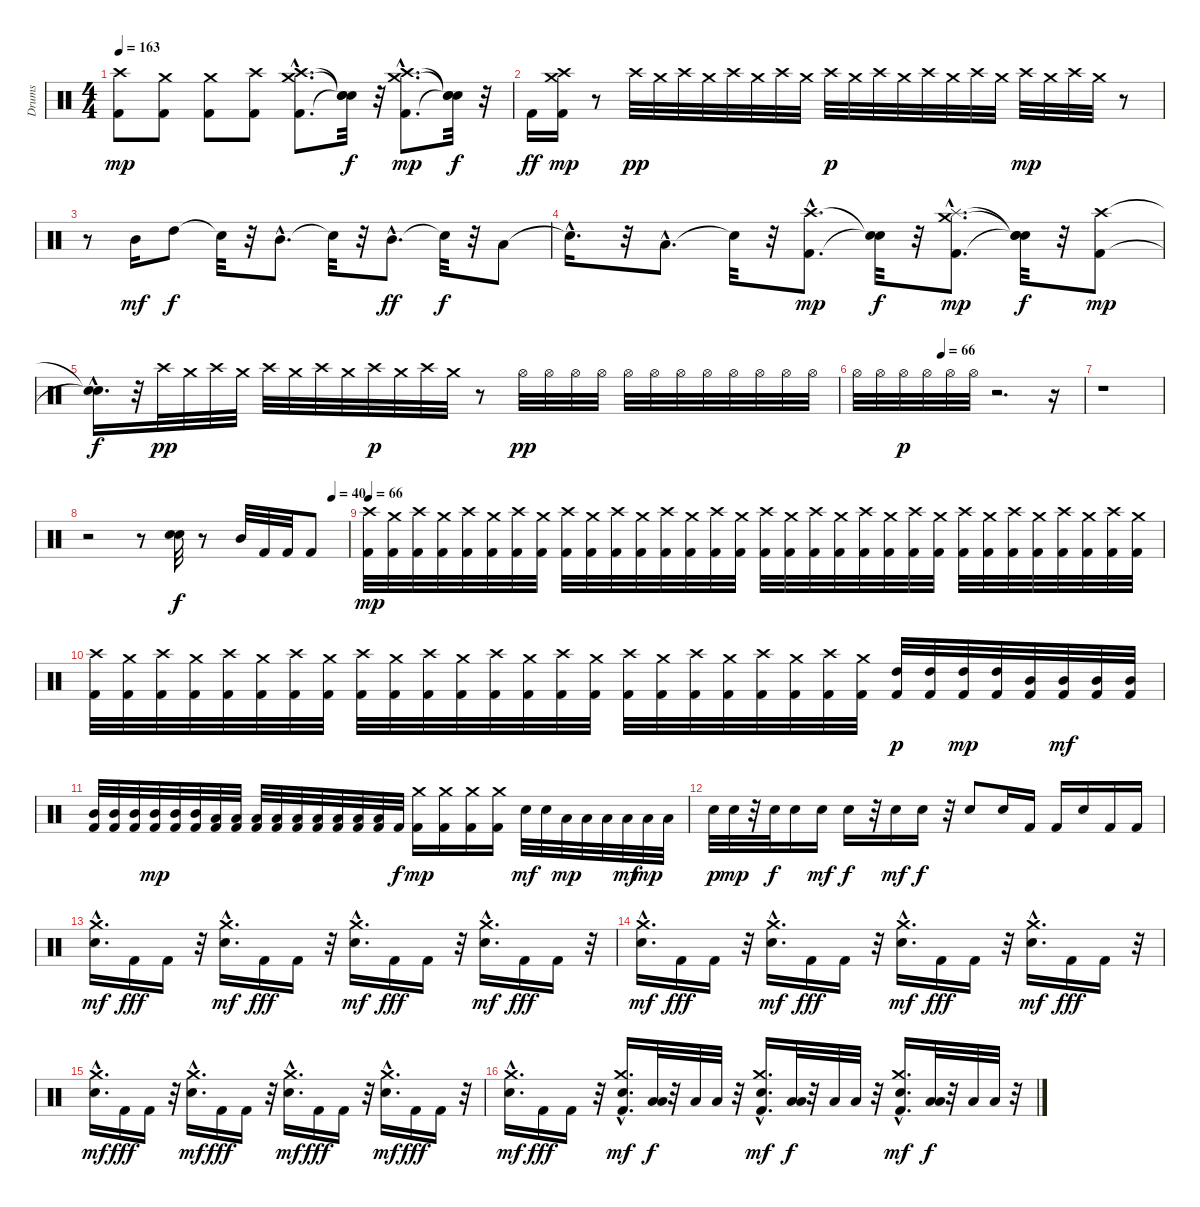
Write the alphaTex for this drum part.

\track ("Drums" "Drums") {instrument percussion}
\staff {score}
\articulation defaults
\ts (4 4)
\tempo 163
\clef neutral
\ks c
("Kick (hit) 2" "Crash high (hit)").8{dy mp} ("Kick (hit) 2" "Crash medium (hit)").8 ("Kick (hit) 2" "Crash medium (hit)").8 ("Kick (hit) 2" "Crash high (hit)").8 ("Kick (hit) 2"{hac} "Crash medium (hit)"{hac} "Crash high (hit)"{hac}).8{d} ("Snare (hit)"{t} "Snare (hit)"{t} "Snare (hit)"{t}).32{dy f} r.32 ("Kick (hit) 2"{hac} "Crash high (hit)"{hac} "Crash medium (hit)"{hac}).8{d dy mp} ("Snare (hit)"{t} "Snare (hit)"{t} "Snare (hit)"{t}).32{dy f} r.32 |
"Kick (hit) 2".16{dy ff} ("Kick (hit) 2" "Crash high (hit)" "Crash medium (hit)").16{dy mp} r.8 "Crash high (hit)".32{dy pp} "Crash medium (hit)".32 "Crash high (hit)".32 "Crash medium (hit)".32 "Crash high (hit)".32 "Crash medium (hit)".32 "Crash high (hit)".32 "Crash medium (hit)".32 "Crash high (hit)".32{dy p} "Crash medium (hit)".32 "Crash high (hit)".32 "Crash medium (hit)".32 "Crash high (hit)".32 "Crash medium (hit)".32 "Crash high (hit)".32 "Crash medium (hit)".32 "Crash high (hit)".32{dy mp} "Crash medium (hit)".32 "Crash high (hit)".32 "Crash medium (hit)".32 r.8 |
r.8 "Mid Tom (hit)".16{dy mf} "High Tom (hit)".8{dy f} "Snare (hit)"{t}.32 r.32 "Mid Tom (hit)"{hac}.8{d} "Snare (hit)"{t}.32 r.32 "Mid Tom (hit)"{hac}.8{d dy ff} "Snare (hit)"{t}.32{dy f} r.32 "Low Tom (hit)".8 |
"Snare (hit)"{hac t}.16{d} r.32 "Low Tom (hit)"{hac}.8{d} "Snare (hit)"{t}.32 r.32 ("Kick (hit) 2"{hac} "Crash high (hit)"{hac}).8{d dy mp} ("Snare (hit)"{t} "Snare (hit)"{t}).32{dy f} r.32 ("Kick (hit) 2"{hac} "Splash (hit)"{hac} "Crash medium (hit)"{hac}).8{d dy mp} ("Snare (hit)"{t} "Snare (hit)"{t} "Snare (hit)"{t}).32{dy f} r.32 ("Kick (hit) 2" "Crash high (hit)").8{dy mp} |
("Snare (hit)"{hac t} "Snare (hit)"{hac t}).16{d dy f} r.32 "Crash high (hit)".32{dy pp} "Crash medium (hit)".32 "Crash high (hit)".32 "Crash medium (hit)".32 "Crash high (hit)".32 "Crash medium (hit)".32 "Crash high (hit)".32 "Crash medium (hit)".32 "Crash high (hit)".32{dy p} "Crash medium (hit)".32 "Crash high (hit)".32 "Crash medium (hit)".32 r.8 "Hi-Hat (open)".32{dy pp} "Hi-Hat (open)".32 "Hi-Hat (open)".32 "Hi-Hat (open)".32 "Hi-Hat (open)".32 "Hi-Hat (open)".32 "Hi-Hat (open)".32 "Hi-Hat (open)".32 "Hi-Hat (open)".32 "Hi-Hat (open)".32 "Hi-Hat (open)".32 "Hi-Hat (open)".32 |
\tempo (66 0.375)
"Hi-Hat (open)".32 "Hi-Hat (open)".32 "Hi-Hat (open)".32{dy p} "Hi-Hat (open)".32 "Hi-Hat (open)".32 "Hi-Hat (open)".32 r.2{d} r.16 |
r.1 |
\tempo (40 0.9375)
r.2 r.8 ("Snare (hit) 2" "Snare (hit) 2").32{dy f} r.8 "Mid Tom (hit)".32 "Kick (hit) 2".32 "Kick (hit) 2".32 "Kick (hit) 2".8 |
\tempo 66
("Crash high (hit)" "Kick (hit) 2").32{dy mp} ("Crash medium (hit)" "Kick (hit) 2").32 ("Crash high (hit)" "Kick (hit) 2").32 ("Crash medium (hit)" "Kick (hit) 2").32 ("Crash high (hit)" "Kick (hit) 2").32 ("Crash medium (hit)" "Kick (hit) 2").32 ("Crash high (hit)" "Kick (hit) 2").32 ("Crash medium (hit)" "Kick (hit) 2").32 ("Crash high (hit)" "Kick (hit) 2").32 ("Crash medium (hit)" "Kick (hit) 2").32 ("Crash high (hit)" "Kick (hit) 2").32 ("Crash medium (hit)" "Kick (hit) 2").32 ("Crash high (hit)" "Kick (hit) 2").32 ("Crash medium (hit)" "Kick (hit) 2").32 ("Crash high (hit)" "Kick (hit) 2").32 ("Crash medium (hit)" "Kick (hit) 2").32 ("Crash high (hit)" "Kick (hit) 2").32 ("Crash medium (hit)" "Kick (hit) 2").32 ("Crash high (hit)" "Kick (hit) 2").32 ("Crash medium (hit)" "Kick (hit) 2").32 ("Crash high (hit)" "Kick (hit) 2").32 ("Crash medium (hit)" "Kick (hit) 2").32 ("Crash high (hit)" "Kick (hit) 2").32 ("Crash medium (hit)" "Kick (hit) 2").32 ("Crash high (hit)" "Kick (hit) 2").32 ("Crash medium (hit)" "Kick (hit) 2").32 ("Crash high (hit)" "Kick (hit) 2").32 ("Crash medium (hit)" "Kick (hit) 2").32 ("Crash high (hit)" "Kick (hit) 2").32 ("Crash medium (hit)" "Kick (hit) 2").32 ("Crash high (hit)" "Kick (hit) 2").32 ("Crash medium (hit)" "Kick (hit) 2").32 |
("Crash high (hit)" "Kick (hit) 2").32 ("Crash medium (hit)" "Kick (hit) 2").32 ("Crash high (hit)" "Kick (hit) 2").32 ("Crash medium (hit)" "Kick (hit) 2").32 ("Crash high (hit)" "Kick (hit) 2").32 ("Crash medium (hit)" "Kick (hit) 2").32 ("Crash high (hit)" "Kick (hit) 2").32 ("Crash medium (hit)" "Kick (hit) 2").32 ("Crash high (hit)" "Kick (hit) 2").32 ("Crash medium (hit)" "Kick (hit) 2").32 ("Crash high (hit)" "Kick (hit) 2").32 ("Crash medium (hit)" "Kick (hit) 2").32 ("Crash high (hit)" "Kick (hit) 2").32 ("Crash medium (hit)" "Kick (hit) 2").32 ("Crash high (hit)" "Kick (hit) 2").32 ("Crash medium (hit)" "Kick (hit) 2").32 ("Crash high (hit)" "Kick (hit) 2").32 ("Crash medium (hit)" "Kick (hit) 2").32 ("Crash high (hit)" "Kick (hit) 2").32 ("Crash medium (hit)" "Kick (hit) 2").32 ("Crash high (hit)" "Kick (hit) 2").32 ("Crash medium (hit)" "Kick (hit) 2").32 ("Crash high (hit)" "Kick (hit) 2").32 ("Crash medium (hit)" "Kick (hit) 2").32 ("High Tom (hit)" "Kick (hit) 2").32{dy p} ("High Tom (hit)" "Kick (hit) 2").32 ("High Tom (hit)" "Kick (hit) 2").32{dy mp} ("High Tom (hit)" "Kick (hit) 2").32 ("Mid Tom (hit)" "Kick (hit) 2").32 ("Mid Tom (hit)" "Kick (hit) 2").32{dy mf} ("Mid Tom (hit)" "Kick (hit) 2").32 ("Mid Tom (hit)" "Kick (hit) 2").32 |
("Mid Tom (hit)" "Kick (hit) 2").32 ("Mid Tom (hit)" "Kick (hit) 2").32 ("Mid Tom (hit)" "Kick (hit) 2").32 ("Mid Tom (hit)" "Kick (hit) 2").32{dy mp} ("Mid Tom (hit)" "Kick (hit) 2").32 ("Mid Tom (hit)" "Kick (hit) 2").32 ("Low Tom (hit)" "Kick (hit) 2").32 ("Low Tom (hit)" "Kick (hit) 2").32 ("Low Tom (hit)" "Kick (hit) 2").32 ("Low Tom (hit)" "Kick (hit) 2").32 ("Low Tom (hit)" "Kick (hit) 2").32 ("Low Tom (hit)" "Kick (hit) 2").32 ("Low Tom (hit)" "Kick (hit) 2").32 ("Low Tom (hit)" "Kick (hit) 2").32 ("Low Tom (hit)" "Kick (hit) 2").32 "Kick (hit) 2".32{dy f} ("Kick (hit) 2" "Crash medium (hit)").16{dy mp} ("Kick (hit) 2" "Crash medium (hit)").16 ("Kick (hit) 2" "Crash medium (hit)").16 ("Kick (hit) 2" "Crash medium (hit)").16 "Snare (hit) 2".32{dy mf} "Snare (hit) 2".32 "Low Tom (hit)".32{dy mp} "Low Tom (hit)".32 "Low Tom (hit)".32 "Low Tom (hit)".32{dy mf} "Low Tom (hit)".32{dy mp} "Low Tom (hit)".32 |
"Snare (hit) 2".32{dy p} "Snare (hit) 2".32{dy mp} r.32 "Snare (hit) 2".32{dy f} "Snare (hit) 2".16 "Snare (hit) 2".16{dy mf} "Snare (hit) 2".16{dy f} r.32 "Snare (hit) 2".16{dy mf} "Snare (hit) 2".16{dy f} r.32 "Snare (hit) 2".8 "Snare (hit) 2".16 "Kick (hit) 2".16 "Kick (hit) 2".16 "Snare (hit) 2".16 "Kick (hit) 2".16 "Kick (hit) 2".16 |
("Snare (hit) 2"{hac} "Crash medium (hit)"{hac}).16{d dy mf} "Kick (hit) 2".16{dy fff} "Kick (hit) 2".16 r.32 ("Snare (hit) 2"{hac} "Crash medium (hit)"{hac}).16{d dy mf} "Kick (hit) 2".16{dy fff} "Kick (hit) 2".16 r.32 ("Snare (hit) 2"{hac} "Crash medium (hit)"{hac}).16{d dy mf} "Kick (hit) 2".16{dy fff} "Kick (hit) 2".16 r.32 ("Snare (hit) 2"{hac} "Crash medium (hit)"{hac}).16{d dy mf} "Kick (hit) 2".16{dy fff} "Kick (hit) 2".16 r.32 |
("Snare (hit) 2"{hac} "Crash medium (hit)"{hac}).16{d dy mf} "Kick (hit) 2".16{dy fff} "Kick (hit) 2".16 r.32 ("Snare (hit) 2"{hac} "Crash medium (hit)"{hac}).16{d dy mf} "Kick (hit) 2".16{dy fff} "Kick (hit) 2".16 r.32 ("Snare (hit) 2"{hac} "Crash medium (hit)"{hac}).16{d dy mf} "Kick (hit) 2".16{dy fff} "Kick (hit) 2".16 r.32 ("Snare (hit) 2"{hac} "Crash medium (hit)"{hac}).16{d dy mf} "Kick (hit) 2".16{dy fff} "Kick (hit) 2".16 r.32 |
("Snare (hit) 2"{hac} "Crash medium (hit)"{hac}).16{d dy mf} "Kick (hit) 2".16{dy fff} "Kick (hit) 2".16 r.32 ("Snare (hit) 2"{hac} "Crash medium (hit)"{hac}).16{d dy mf} "Kick (hit) 2".16{dy fff} "Kick (hit) 2".16 r.32 ("Snare (hit) 2"{hac} "Crash medium (hit)"{hac}).16{d dy mf} "Kick (hit) 2".16{dy fff} "Kick (hit) 2".16 r.32 ("Snare (hit) 2"{hac} "Crash medium (hit)"{hac}).16{d dy mf} "Kick (hit) 2".16{dy fff} "Kick (hit) 2".16 r.32 |
("Snare (hit) 2"{hac} "Crash medium (hit)"{hac}).16{d dy mf} "Kick (hit) 2".16{dy fff} "Kick (hit) 2".16 r.32 ("Snare (hit) 2" "Crash medium (hit)" "Kick (hit) 2"{hac}).16{d dy mf} ("Low Tom (hit)" "Low Tom (hit)").32{dy f} r.32 "Low Tom (hit)".32 "Low Tom (hit)".32 r.32 ("Snare (hit) 2" "Crash medium (hit)" "Kick (hit) 2"{hac}).16{d dy mf} ("Low Tom (hit)" "Low Tom (hit)").32{dy f} r.32 "Low Tom (hit)".32 "Low Tom (hit)".32 r.32 ("Snare (hit) 2" "Crash medium (hit)" "Kick (hit) 2"{hac}).16{d dy mf} ("Low Tom (hit)" "Low Tom (hit)").32{dy f} r.32 "Low Tom (hit)".32 "Low Tom (hit)".32 r.32
